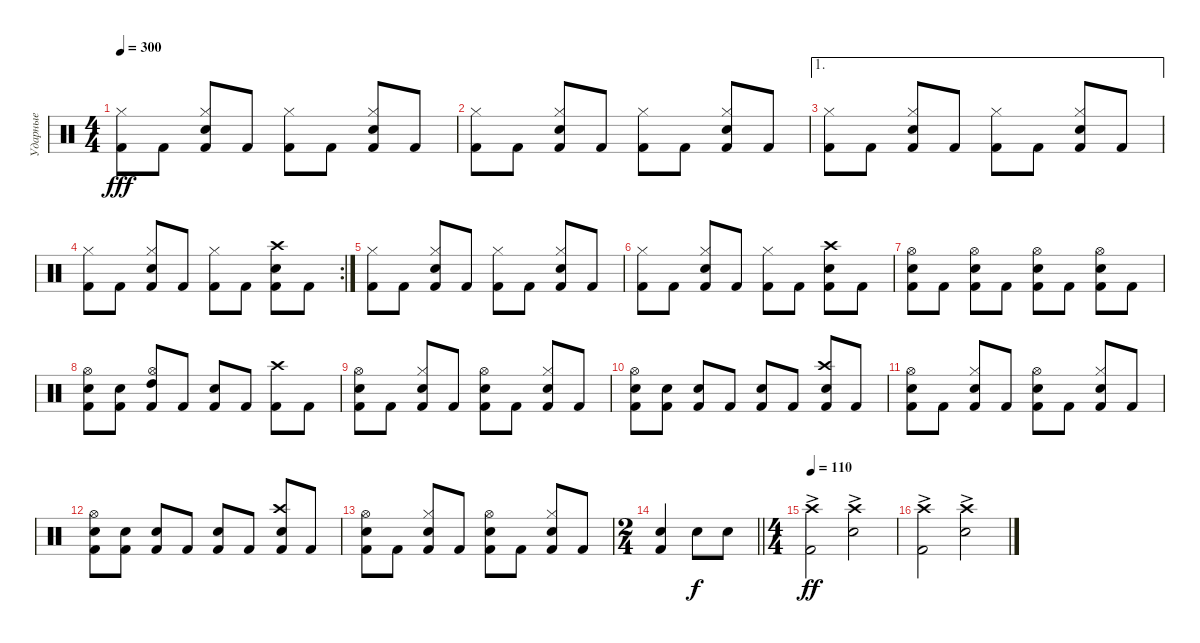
\track ("Ударные" "Ударные") {instrument percussion}
\staff {score}
\articulation defaults
\ts (4 4)
\tempo 300
\clef neutral
\ks c
("Kick (hit) 2" "Hi-Hat (closed)").8{dy fff} "Kick (hit) 2".8 ("Kick (hit) 2" "Snare (hit) 2" "Hi-Hat (closed)").8 "Kick (hit) 2".8 ("Kick (hit) 2" "Hi-Hat (closed)").8 "Kick (hit) 2".8 ("Kick (hit) 2" "Snare (hit) 2" "Hi-Hat (closed)").8 "Kick (hit) 2".8 |
("Kick (hit) 2" "Hi-Hat (closed)").8 "Kick (hit) 2".8 ("Kick (hit) 2" "Snare (hit) 2" "Hi-Hat (closed)").8 "Kick (hit) 2".8 ("Kick (hit) 2" "Hi-Hat (closed)").8 "Kick (hit) 2".8 ("Kick (hit) 2" "Snare (hit) 2" "Hi-Hat (closed)").8 "Kick (hit) 2".8 |
\ae 1
("Kick (hit) 2" "Hi-Hat (closed)").8 "Kick (hit) 2".8 ("Kick (hit) 2" "Snare (hit) 2" "Hi-Hat (closed)").8 "Kick (hit) 2".8 ("Kick (hit) 2" "Hi-Hat (closed)").8 "Kick (hit) 2".8 ("Kick (hit) 2" "Snare (hit) 2" "Hi-Hat (closed)").8 "Kick (hit) 2".8 |
\rc 2
("Kick (hit) 2" "Hi-Hat (closed)").8 "Kick (hit) 2".8 ("Kick (hit) 2" "Snare (hit) 2" "Hi-Hat (closed)").8 "Kick (hit) 2".8 ("Kick (hit) 2" "Hi-Hat (closed)").8 "Kick (hit) 2".8 ("Kick (hit) 2" "Snare (hit) 2" "Crash high (hit)").8 "Kick (hit) 2".8 |
("Kick (hit) 2" "Hi-Hat (closed)").8 "Kick (hit) 2".8 ("Kick (hit) 2" "Snare (hit) 2" "Hi-Hat (closed)").8 "Kick (hit) 2".8 ("Kick (hit) 2" "Hi-Hat (closed)").8 "Kick (hit) 2".8 ("Kick (hit) 2" "Snare (hit) 2" "Hi-Hat (closed)").8 "Kick (hit) 2".8 |
("Kick (hit) 2" "Hi-Hat (closed)").8 "Kick (hit) 2".8 ("Kick (hit) 2" "Snare (hit) 2" "Hi-Hat (closed)").8 "Kick (hit) 2".8 ("Kick (hit) 2" "Hi-Hat (closed)").8 "Kick (hit) 2".8 ("Kick (hit) 2" "Snare (hit) 2" "Crash high (hit)").8 "Kick (hit) 2".8 |
("Kick (hit) 2" "Snare (hit) 2" "Hi-Hat (open)").8 "Kick (hit) 2".8 ("Kick (hit) 2" "Snare (hit) 2" "Hi-Hat (open)").8 "Kick (hit) 2".8 ("Kick (hit) 2" "Snare (hit) 2" "Hi-Hat (open)").8 "Kick (hit) 2".8 ("Kick (hit) 2" "Snare (hit) 2" "Hi-Hat (open)").8 "Kick (hit) 2".8 |
("Kick (hit) 2" "Snare (hit) 2" "Hi-Hat (open)").8 ("Kick (hit) 2" "Snare (hit) 2").8 ("Kick (hit) 2" "High Tom (hit)" "Hi-Hat (open)").8 "Kick (hit) 2".8 ("Kick (hit) 2" "Electric Snare (hit)").8 "Kick (hit) 2".8 ("Kick (hit) 2" "Crash high (hit)").8 "Kick (hit) 2".8 |
("Kick (hit) 2" "Snare (hit) 2" "Hi-Hat (open)").8 "Kick (hit) 2".8 ("Kick (hit) 2" "Snare (hit) 2" "Hi-Hat (closed)").8 "Kick (hit) 2".8 ("Kick (hit) 2" "Snare (hit) 2" "Hi-Hat (open)").8 "Kick (hit) 2".8 ("Kick (hit) 2" "Snare (hit) 2" "Hi-Hat (closed)").8 "Kick (hit) 2".8 |
("Kick (hit) 2" "Snare (hit) 2" "Hi-Hat (open)").8 ("Kick (hit) 2" "Snare (hit) 2").8 ("Kick (hit) 2" "Electric Snare (hit)").8 "Kick (hit) 2".8 ("Kick (hit) 2" "Snare (hit) 2").8 "Kick (hit) 2".8 ("Kick (hit) 2" "Electric Snare (hit)" "Crash high (hit)").8 "Kick (hit) 2".8 |
("Kick (hit) 2" "Snare (hit) 2" "Hi-Hat (open)").8 "Kick (hit) 2".8 ("Kick (hit) 2" "Snare (hit) 2" "Hi-Hat (closed)").8 "Kick (hit) 2".8 ("Kick (hit) 2" "Snare (hit) 2" "Hi-Hat (open)").8 "Kick (hit) 2".8 ("Kick (hit) 2" "Snare (hit) 2" "Hi-Hat (closed)").8 "Kick (hit) 2".8 |
("Kick (hit) 2" "Snare (hit) 2" "Hi-Hat (open)").8 ("Kick (hit) 2" "Snare (hit) 2").8 ("Kick (hit) 2" "Electric Snare (hit)").8 "Kick (hit) 2".8 ("Kick (hit) 2" "Snare (hit) 2").8 "Kick (hit) 2".8 ("Kick (hit) 2" "Electric Snare (hit)" "Crash high (hit)").8 "Kick (hit) 2".8 |
("Kick (hit) 2" "Snare (hit) 2" "Hi-Hat (open)").8 "Kick (hit) 2".8 ("Kick (hit) 2" "Snare (hit) 2" "Hi-Hat (closed)").8 "Kick (hit) 2".8 ("Kick (hit) 2" "Snare (hit) 2" "Hi-Hat (open)").8 "Kick (hit) 2".8 ("Kick (hit) 2" "Snare (hit) 2" "Hi-Hat (closed)").8 "Kick (hit) 2".8 |
\ts (2 4)
\barLineRight lightlight
("Kick (hit) 2" "Snare (hit) 2").4 "Snare (hit) 2".8{dy f} "Snare (hit) 2".8 |
\ts (4 4)
\tempo 110
("Kick (hit) 2" "Crash high (hit)"{ac}).2{dy ff} ("Snare (hit) 2" "Crash high (hit)"{ac}).2 |
("Kick (hit) 2" "Crash high (hit)"{ac}).2 ("Snare (hit) 2" "Crash high (hit)"{ac}).2
